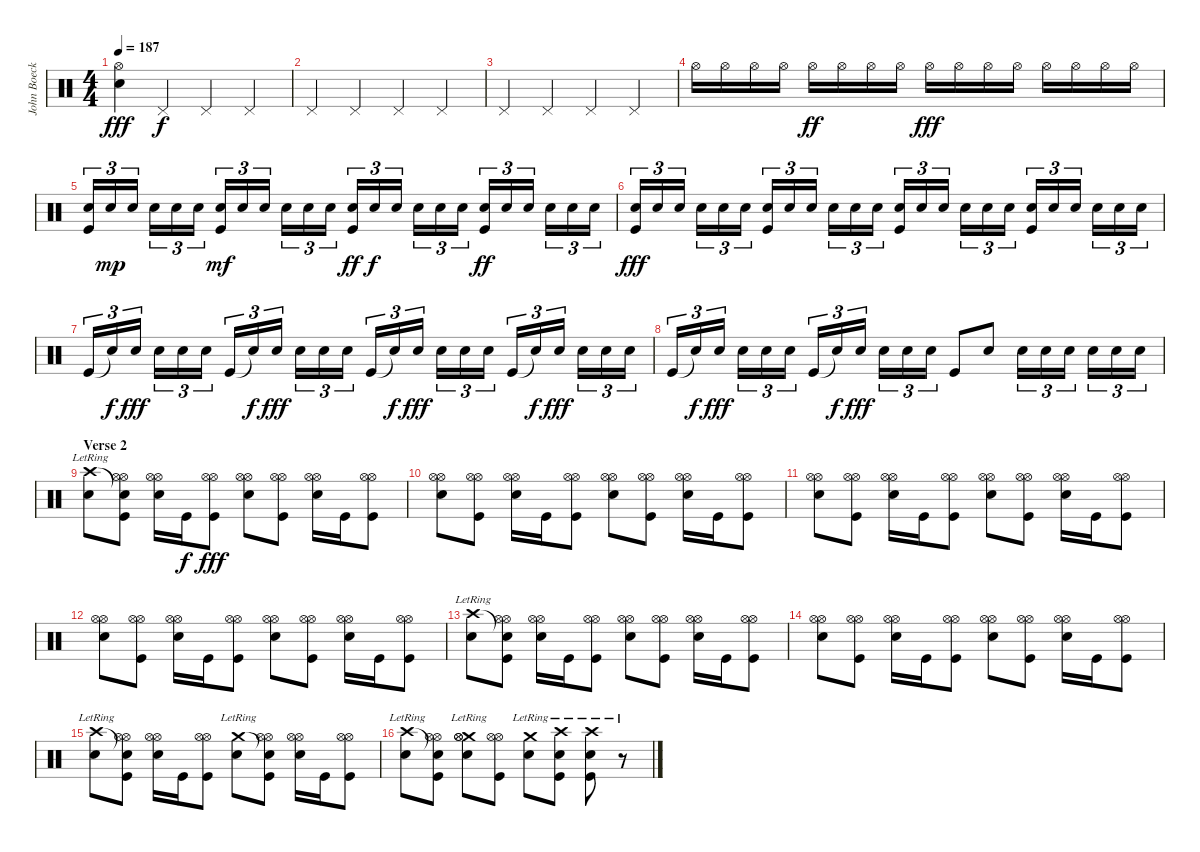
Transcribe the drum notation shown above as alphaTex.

\track ("John Boecklin - Drums" "John Boeck") {instrument percussion}
\staff {score}
\articulation defaults
\ts (4 4)
\tempo 187
\clef neutral
\ks c
("Snare (hit) 2" "Hi-Hat (open)").4{dy fff} "Pedal Hi-Hat (hit)".4{dy f} "Pedal Hi-Hat (hit)".4 "Pedal Hi-Hat (hit)".4 |
"Pedal Hi-Hat (hit)".4 "Pedal Hi-Hat (hit)".4 "Pedal Hi-Hat (hit)".4 "Pedal Hi-Hat (hit)".4 |
"Pedal Hi-Hat (hit)".4 "Pedal Hi-Hat (hit)".4 "Pedal Hi-Hat (hit)".4 "Pedal Hi-Hat (hit)".4 |
"Hi-Hat (open)".16 "Hi-Hat (open)".16 "Hi-Hat (open)".16 "Hi-Hat (open)".16 "Hi-Hat (open)".16{dy ff} "Hi-Hat (open)".16 "Hi-Hat (open)".16 "Hi-Hat (open)".16 "Hi-Hat (open)".16{dy fff} "Hi-Hat (open)".16 "Hi-Hat (open)".16 "Hi-Hat (open)".16 "Hi-Hat (open)".16 "Hi-Hat (open)".16 "Hi-Hat (open)".16 "Hi-Hat (open)".16 |
("Snare (hit) 2" "Kick (hit)").16{tu (3 2)} "Snare (hit) 2".16{tu (3 2) dy mp} "Snare (hit) 2".16{tu (3 2)} "Snare (hit) 2".16{tu (3 2)} "Snare (hit) 2".16{tu (3 2)} "Snare (hit) 2".16{tu (3 2)} ("Snare (hit) 2" "Kick (hit)").16{tu (3 2) dy mf} "Snare (hit) 2".16{tu (3 2)} "Snare (hit) 2".16{tu (3 2)} "Snare (hit) 2".16{tu (3 2)} "Snare (hit) 2".16{tu (3 2)} "Snare (hit) 2".16{tu (3 2)} ("Snare (hit) 2" "Kick (hit)").16{tu (3 2) dy ff} "Snare (hit) 2".16{tu (3 2) dy f} "Snare (hit) 2".16{tu (3 2)} "Snare (hit) 2".16{tu (3 2)} "Snare (hit) 2".16{tu (3 2)} "Snare (hit) 2".16{tu (3 2)} ("Snare (hit) 2" "Kick (hit)").16{tu (3 2) dy ff} "Snare (hit) 2".16{tu (3 2)} "Snare (hit) 2".16{tu (3 2)} "Snare (hit) 2".16{tu (3 2)} "Snare (hit) 2".16{tu (3 2)} "Snare (hit) 2".16{tu (3 2)} |
("Snare (hit) 2" "Kick (hit)").16{tu (3 2) dy fff} "Snare (hit) 2".16{tu (3 2)} "Snare (hit) 2".16{tu (3 2)} "Snare (hit) 2".16{tu (3 2)} "Snare (hit) 2".16{tu (3 2)} "Snare (hit) 2".16{tu (3 2)} ("Snare (hit) 2" "Kick (hit)").16{tu (3 2)} "Snare (hit) 2".16{tu (3 2)} "Snare (hit) 2".16{tu (3 2)} "Snare (hit) 2".16{tu (3 2)} "Snare (hit) 2".16{tu (3 2)} "Snare (hit) 2".16{tu (3 2)} ("Snare (hit) 2" "Kick (hit)").16{tu (3 2)} "Snare (hit) 2".16{tu (3 2)} "Snare (hit) 2".16{tu (3 2)} "Snare (hit) 2".16{tu (3 2)} "Snare (hit) 2".16{tu (3 2)} "Snare (hit) 2".16{tu (3 2)} ("Snare (hit) 2" "Kick (hit)").16{tu (3 2)} "Snare (hit) 2".16{tu (3 2)} "Snare (hit) 2".16{tu (3 2)} "Snare (hit) 2".16{tu (3 2)} "Snare (hit) 2".16{tu (3 2)} "Snare (hit) 2".16{tu (3 2)} |
"Kick (hit)".16{tu (3 2)} "Snare (hit)"{t}.16{tu (3 2) dy f} "Snare (hit) 2".16{tu (3 2) dy fff} "Snare (hit) 2".16{tu (3 2)} "Snare (hit) 2".16{tu (3 2)} "Snare (hit) 2".16{tu (3 2)} "Kick (hit)".16{tu (3 2)} "Snare (hit)"{t}.16{tu (3 2) dy f} "Snare (hit) 2".16{tu (3 2) dy fff} "Snare (hit) 2".16{tu (3 2)} "Snare (hit) 2".16{tu (3 2)} "Snare (hit) 2".16{tu (3 2)} "Kick (hit)".16{tu (3 2)} "Snare (hit)"{t}.16{tu (3 2) dy f} "Snare (hit) 2".16{tu (3 2) dy fff} "Snare (hit) 2".16{tu (3 2)} "Snare (hit) 2".16{tu (3 2)} "Snare (hit) 2".16{tu (3 2)} "Kick (hit)".16{tu (3 2)} "Snare (hit)"{t}.16{tu (3 2) dy f} "Snare (hit) 2".16{tu (3 2) dy fff} "Snare (hit) 2".16{tu (3 2)} "Snare (hit) 2".16{tu (3 2)} "Snare (hit) 2".16{tu (3 2)} |
"Kick (hit)".16{tu (3 2)} "Snare (hit)"{t}.16{tu (3 2) dy f} "Snare (hit) 2".16{tu (3 2) dy fff} "Snare (hit) 2".16{tu (3 2)} "Snare (hit) 2".16{tu (3 2)} "Snare (hit) 2".16{tu (3 2)} "Kick (hit)".16{tu (3 2)} "Snare (hit)"{t}.16{tu (3 2) dy f} "Snare (hit) 2".16{tu (3 2) dy fff} "Snare (hit) 2".16{tu (3 2)} "Snare (hit) 2".16{tu (3 2)} "Snare (hit) 2".16{tu (3 2)} "Kick (hit)".8 "Snare (hit) 2".8 "Snare (hit) 2".16{tu (3 2)} "Snare (hit) 2".16{tu (3 2)} "Snare (hit) 2".16{tu (3 2)} "Snare (hit) 2".16{tu (3 2)} "Snare (hit) 2".16{tu (3 2)} "Snare (hit) 2".16{tu (3 2)} |
\section ("" "Verse 2")
("Crash high (hit)"{lr} "Snare (hit) 2").8 ("Snare (hit)"{t} "Hi-Hat (open)" "Hi-Hat (open)" "Kick (hit)").8 ("Snare (hit) 2" "Hi-Hat (open)" "Hi-Hat (open)").16 "Kick (hit)".16{dy f} ("Hi-Hat (open)" "Hi-Hat (open)" "Kick (hit)").8{dy fff} ("Snare (hit) 2" "Hi-Hat (open)" "Hi-Hat (open)").8 ("Hi-Hat (open)" "Hi-Hat (open)" "Kick (hit)").8 ("Snare (hit) 2" "Hi-Hat (open)" "Hi-Hat (open)").16 "Kick (hit)".16 ("Hi-Hat (open)" "Hi-Hat (open)" "Kick (hit)").8 |
("Snare (hit) 2" "Hi-Hat (open)" "Hi-Hat (open)").8 ("Hi-Hat (open)" "Hi-Hat (open)" "Kick (hit)").8 ("Snare (hit) 2" "Hi-Hat (open)" "Hi-Hat (open)").16 "Kick (hit)".16 ("Hi-Hat (open)" "Hi-Hat (open)" "Kick (hit)").8 ("Snare (hit) 2" "Hi-Hat (open)" "Hi-Hat (open)").8 ("Hi-Hat (open)" "Hi-Hat (open)" "Kick (hit)").8 ("Snare (hit) 2" "Hi-Hat (open)" "Hi-Hat (open)").16 "Kick (hit)".16 ("Hi-Hat (open)" "Hi-Hat (open)" "Kick (hit)").8 |
("Snare (hit) 2" "Hi-Hat (open)" "Hi-Hat (open)").8 ("Hi-Hat (open)" "Hi-Hat (open)" "Kick (hit)").8 ("Snare (hit) 2" "Hi-Hat (open)" "Hi-Hat (open)").16 "Kick (hit)".16 ("Hi-Hat (open)" "Hi-Hat (open)" "Kick (hit)").8 ("Snare (hit) 2" "Hi-Hat (open)" "Hi-Hat (open)").8 ("Hi-Hat (open)" "Hi-Hat (open)" "Kick (hit)").8 ("Snare (hit) 2" "Hi-Hat (open)" "Hi-Hat (open)").16 "Kick (hit)".16 ("Hi-Hat (open)" "Hi-Hat (open)" "Kick (hit)").8 |
("Snare (hit) 2" "Hi-Hat (open)" "Hi-Hat (open)").8 ("Hi-Hat (open)" "Hi-Hat (open)" "Kick (hit)").8 ("Snare (hit) 2" "Hi-Hat (open)" "Hi-Hat (open)").16 "Kick (hit)".16 ("Hi-Hat (open)" "Hi-Hat (open)" "Kick (hit)").8 ("Snare (hit) 2" "Hi-Hat (open)" "Hi-Hat (open)").8 ("Hi-Hat (open)" "Hi-Hat (open)" "Kick (hit)").8 ("Snare (hit) 2" "Hi-Hat (open)" "Hi-Hat (open)").16 "Kick (hit)".16 ("Hi-Hat (open)" "Hi-Hat (open)" "Kick (hit)").8 |
("Crash high (hit)"{lr} "Snare (hit) 2").8 ("Snare (hit)"{t} "Hi-Hat (open)" "Hi-Hat (open)" "Kick (hit)").8 ("Snare (hit) 2" "Hi-Hat (open)" "Hi-Hat (open)").16 "Kick (hit)".16 ("Hi-Hat (open)" "Hi-Hat (open)" "Kick (hit)").8 ("Snare (hit) 2" "Hi-Hat (open)" "Hi-Hat (open)").8 ("Hi-Hat (open)" "Hi-Hat (open)" "Kick (hit)").8 ("Snare (hit) 2" "Hi-Hat (open)" "Hi-Hat (open)").16 "Kick (hit)".16 ("Hi-Hat (open)" "Hi-Hat (open)" "Kick (hit)").8 |
("Snare (hit) 2" "Hi-Hat (open)" "Hi-Hat (open)").8 ("Hi-Hat (open)" "Hi-Hat (open)" "Kick (hit)").8 ("Snare (hit) 2" "Hi-Hat (open)" "Hi-Hat (open)").16 "Kick (hit)".16 ("Hi-Hat (open)" "Hi-Hat (open)" "Kick (hit)").8 ("Snare (hit) 2" "Hi-Hat (open)" "Hi-Hat (open)").8 ("Hi-Hat (open)" "Hi-Hat (open)" "Kick (hit)").8 ("Snare (hit) 2" "Hi-Hat (open)" "Hi-Hat (open)").16 "Kick (hit)".16 ("Hi-Hat (open)" "Hi-Hat (open)" "Kick (hit)").8 |
("Crash high (hit)"{lr} "Snare (hit) 2").8 ("Snare (hit)"{t} "Hi-Hat (open)" "Hi-Hat (open)" "Kick (hit)").8 ("Snare (hit) 2" "Hi-Hat (open)" "Hi-Hat (open)").16 "Kick (hit)".16 ("Hi-Hat (open)" "Hi-Hat (open)" "Kick (hit)").8 ("Crash medium (hit)"{lr} "Snare (hit) 2").8 ("Snare (hit)"{t} "Hi-Hat (open)" "Hi-Hat (open)" "Kick (hit)").8 ("Snare (hit) 2" "Hi-Hat (open)" "Hi-Hat (open)").16 "Kick (hit)".16 ("Hi-Hat (open)" "Hi-Hat (open)" "Kick (hit)").8 |
("Crash high (hit)"{lr} "Snare (hit) 2").8 ("Snare (hit)"{t} "Hi-Hat (open)" "Hi-Hat (open)" "Kick (hit)").8 ("Crash medium (hit)"{lr} "Snare (hit) 2" "Hi-Hat (open)" "Hi-Hat (open)").8 ("Hi-Hat (open)" "Hi-Hat (open)" "Kick (hit)").8 ("Crash medium (hit)"{lr} "Snare (hit) 2").8 ("Crash high (hit)"{lr} "Snare (hit) 2" "Kick (hit)").8 ("Crash high (hit)"{lr} "Snare (hit) 2" "Kick (hit)").8 r.8
